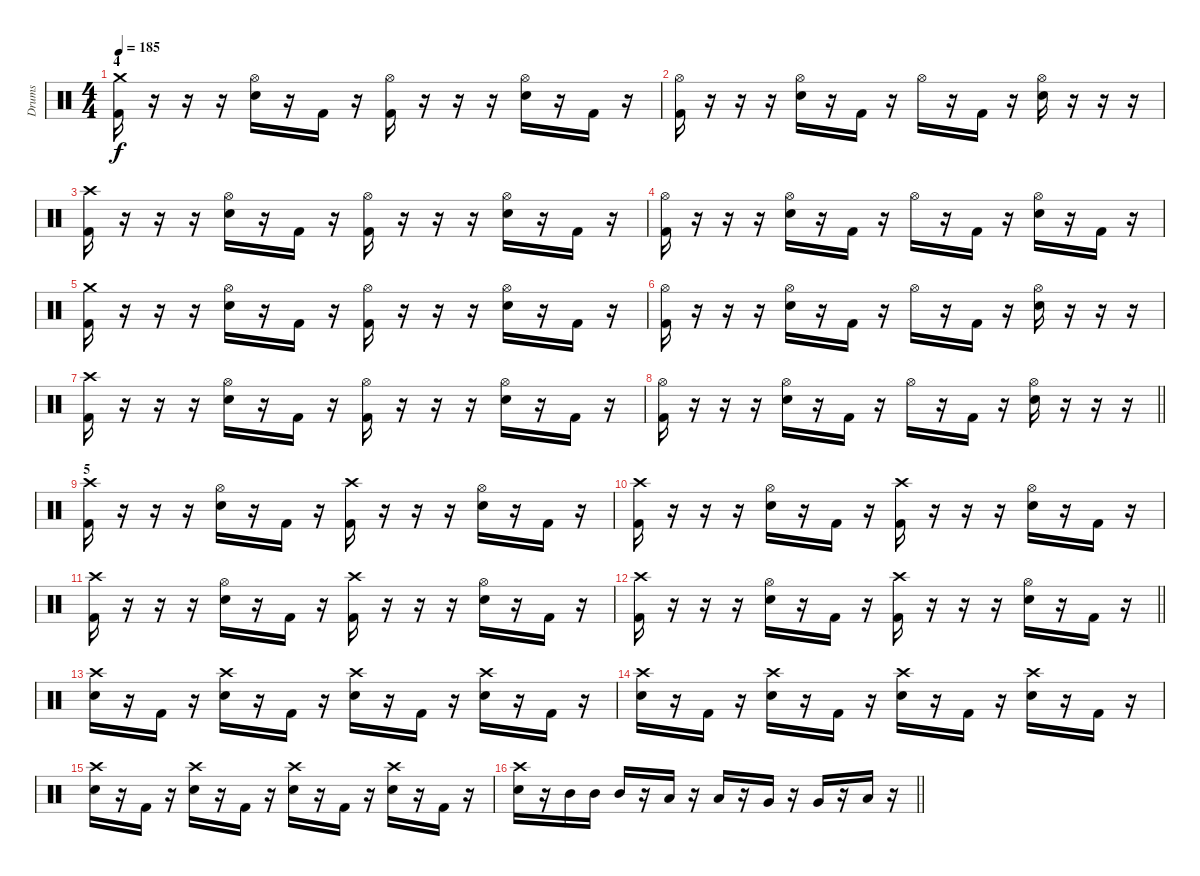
\track ("Drums" "Drums") {instrument percussion}
\staff {score}
\articulation defaults
\ts (4 4)
\section ("" "4")
\tempo 185
\clef neutral
\ks c
("Crash medium (hit)" "Kick (hit) 2").16{dy f} r.16 r.16 r.16 ("Hi-Hat (open)" "Electric Snare (hit)").16 r.16 "Kick (hit) 2".16 r.16 ("Hi-Hat (open)" "Kick (hit) 2").16 r.16 r.16 r.16 ("Hi-Hat (open)" "Electric Snare (hit)").16 r.16 "Kick (hit) 2".16 r.16 |
("Hi-Hat (open)" "Kick (hit) 2").16 r.16 r.16 r.16 ("Hi-Hat (open)" "Electric Snare (hit)").16 r.16 "Kick (hit) 2".16 r.16 "Hi-Hat (open)".16 r.16 "Kick (hit) 2".16 r.16 ("Hi-Hat (open)" "Electric Snare (hit)").16 r.16 r.16 r.16 |
("Crash high (hit)" "Kick (hit) 2").16 r.16 r.16 r.16 ("Hi-Hat (open)" "Electric Snare (hit)").16 r.16 "Kick (hit) 2".16 r.16 ("Hi-Hat (open)" "Kick (hit) 2").16 r.16 r.16 r.16 ("Hi-Hat (open)" "Electric Snare (hit)").16 r.16 "Kick (hit) 2".16 r.16 |
("Hi-Hat (open)" "Kick (hit) 2").16 r.16 r.16 r.16 ("Hi-Hat (open)" "Electric Snare (hit)").16 r.16 "Kick (hit) 2".16 r.16 "Hi-Hat (open)".16 r.16 "Kick (hit) 2".16 r.16 ("Hi-Hat (open)" "Electric Snare (hit)").16 r.16 "Kick (hit) 2".16 r.16 |
("Crash medium (hit)" "Kick (hit) 2").16 r.16 r.16 r.16 ("Hi-Hat (open)" "Electric Snare (hit)").16 r.16 "Kick (hit) 2".16 r.16 ("Hi-Hat (open)" "Kick (hit) 2").16 r.16 r.16 r.16 ("Hi-Hat (open)" "Electric Snare (hit)").16 r.16 "Kick (hit) 2".16 r.16 |
("Hi-Hat (open)" "Kick (hit) 2").16 r.16 r.16 r.16 ("Hi-Hat (open)" "Electric Snare (hit)").16 r.16 "Kick (hit) 2".16 r.16 "Hi-Hat (open)".16 r.16 "Kick (hit) 2".16 r.16 ("Hi-Hat (open)" "Electric Snare (hit)").16 r.16 r.16 r.16 |
("Crash high (hit)" "Kick (hit) 2").16 r.16 r.16 r.16 ("Hi-Hat (open)" "Electric Snare (hit)").16 r.16 "Kick (hit) 2".16 r.16 ("Hi-Hat (open)" "Kick (hit) 2").16 r.16 r.16 r.16 ("Hi-Hat (open)" "Electric Snare (hit)").16 r.16 "Kick (hit) 2".16 r.16 |
\barLineRight lightlight
("Hi-Hat (open)" "Kick (hit) 2").16 r.16 r.16 r.16 ("Hi-Hat (open)" "Electric Snare (hit)").16 r.16 "Kick (hit) 2".16 r.16 "Hi-Hat (open)".16 r.16 "Kick (hit) 2".16 r.16 ("Hi-Hat (open)" "Electric Snare (hit)").16 r.16 r.16 r.16 |
\section ("" "5")
("Crash high (hit)" "Kick (hit) 2").16 r.16 r.16 r.16 ("Hi-Hat (open)" "Electric Snare (hit)").16 r.16 "Kick (hit) 2".16 r.16 ("Crash high (hit)" "Kick (hit) 2").16 r.16 r.16 r.16 ("Hi-Hat (open)" "Electric Snare (hit)").16 r.16 "Kick (hit) 2".16 r.16 |
("Crash high (hit)" "Kick (hit) 2").16 r.16 r.16 r.16 ("Hi-Hat (open)" "Electric Snare (hit)").16 r.16 "Kick (hit) 2".16 r.16 ("Crash high (hit)" "Kick (hit) 2").16 r.16 r.16 r.16 ("Hi-Hat (open)" "Electric Snare (hit)").16 r.16 "Kick (hit) 2".16 r.16 |
("Crash high (hit)" "Kick (hit) 2").16 r.16 r.16 r.16 ("Hi-Hat (open)" "Electric Snare (hit)").16 r.16 "Kick (hit) 2".16 r.16 ("Crash high (hit)" "Kick (hit) 2").16 r.16 r.16 r.16 ("Hi-Hat (open)" "Electric Snare (hit)").16 r.16 "Kick (hit) 2".16 r.16 |
\barLineRight lightlight
("Crash high (hit)" "Kick (hit) 2").16 r.16 r.16 r.16 ("Hi-Hat (open)" "Electric Snare (hit)").16 r.16 "Kick (hit) 2".16 r.16 ("Crash high (hit)" "Kick (hit) 2").16 r.16 r.16 r.16 ("Hi-Hat (open)" "Electric Snare (hit)").16 r.16 "Kick (hit) 2".16 r.16 |
\section ("" "")
("Crash high (hit)" "Electric Snare (hit)").16 r.16 "Kick (hit) 2".16 r.16 ("Crash high (hit)" "Electric Snare (hit)").16 r.16 "Kick (hit) 2".16 r.16 ("Crash high (hit)" "Electric Snare (hit)").16 r.16 "Kick (hit) 2".16 r.16 ("Crash high (hit)" "Electric Snare (hit)").16 r.16 "Kick (hit) 2".16 r.16 |
("Crash high (hit)" "Electric Snare (hit)").16 r.16 "Kick (hit) 2".16 r.16 ("Crash high (hit)" "Electric Snare (hit)").16 r.16 "Kick (hit) 2".16 r.16 ("Crash high (hit)" "Electric Snare (hit)").16 r.16 "Kick (hit) 2".16 r.16 ("Crash high (hit)" "Electric Snare (hit)").16 r.16 "Kick (hit) 2".16 r.16 |
("Crash high (hit)" "Electric Snare (hit)").16 r.16 "Kick (hit) 2".16 r.16 ("Crash high (hit)" "Electric Snare (hit)").16 r.16 "Kick (hit) 2".16 r.16 ("Crash high (hit)" "Electric Snare (hit)").16 r.16 "Kick (hit) 2".16 r.16 ("Crash high (hit)" "Electric Snare (hit)").16 r.16 "Kick (hit) 2".16 r.16 |
\barLineRight lightlight
("Crash high (hit)" "Electric Snare (hit)").16 r.16 "Mid Tom (hit)".16 "Mid Tom (hit)".16 "Mid Tom (hit)".16 r.16 "Low Tom (hit)".16 r.16 "Low Tom (hit)".16 r.16 "Very Low Tom (hit)".16 r.16 "Very Low Tom (hit)".16 r.16 "Low Floor Tom (hit)".16 r.16
